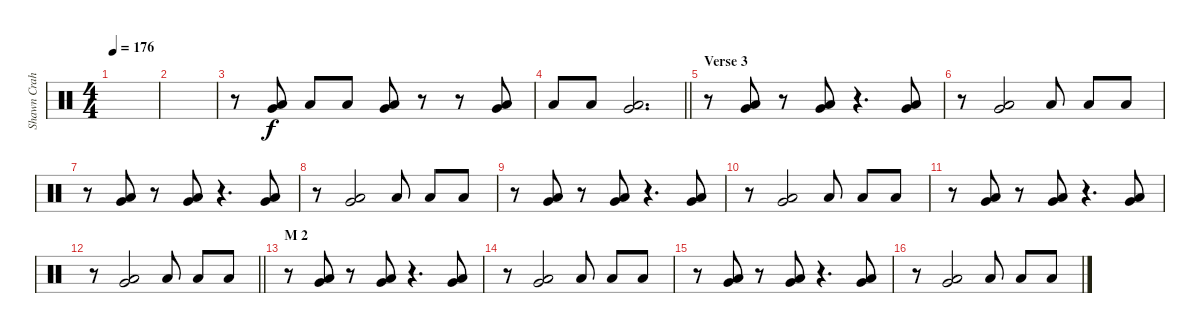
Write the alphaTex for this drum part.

\track ("Shawn Crahan" "Shawn Crah") {instrument percussion}
\staff {score}
\articulation defaults
\ts (4 4)
\tempo 176
\clef neutral
\ks c
|
|
r.8 ("Very Low Tom (hit)" "Low Floor Tom (hit)").8 "Low Floor Tom (hit)".8 "Low Floor Tom (hit)".8 ("Very Low Tom (hit)" "Low Floor Tom (hit)").8 r.8 r.8 ("Very Low Tom (hit)" "Low Floor Tom (hit)").8 |
\barLineRight lightlight "Low Floor Tom (hit)".8 "Low Floor Tom (hit)".8
("Very Low Tom (hit)" "Low Floor Tom (hit)").2{d} |
\section ("" "Verse 3")
r.8 ("Very Low Tom (hit)" "Low Floor Tom (hit)").8 r.8 ("Very Low Tom (hit)" "Low Floor Tom (hit)").8 r.4{d} ("Very Low Tom (hit)" "Low Floor Tom (hit)").8 |
r.8 ("Very Low Tom (hit)" "Low Floor Tom (hit)").2 "Low Floor Tom (hit)".8 "Low Floor Tom (hit)".8 "Low Floor Tom (hit)".8 |
r.8 ("Very Low Tom (hit)" "Low Floor Tom (hit)").8 r.8 ("Very Low Tom (hit)" "Low Floor Tom (hit)").8 r.4{d} ("Very Low Tom (hit)" "Low Floor Tom (hit)").8 |
r.8 ("Very Low Tom (hit)" "Low Floor Tom (hit)").2 "Low Floor Tom (hit)".8 "Low Floor Tom (hit)".8 "Low Floor Tom (hit)".8 |
r.8 ("Very Low Tom (hit)" "Low Floor Tom (hit)").8 r.8 ("Very Low Tom (hit)" "Low Floor Tom (hit)").8 r.4{d} ("Very Low Tom (hit)" "Low Floor Tom (hit)").8 |
r.8 ("Very Low Tom (hit)" "Low Floor Tom (hit)").2 "Low Floor Tom (hit)".8 "Low Floor Tom (hit)".8 "Low Floor Tom (hit)".8 |
r.8 ("Very Low Tom (hit)" "Low Floor Tom (hit)").8 r.8 ("Very Low Tom (hit)" "Low Floor Tom (hit)").8 r.4{d} ("Very Low Tom (hit)" "Low Floor Tom (hit)").8 |
\barLineRight lightlight
r.8 ("Very Low Tom (hit)" "Low Floor Tom (hit)").2 "Low Floor Tom (hit)".8 "Low Floor Tom (hit)".8 "Low Floor Tom (hit)".8 |
\section ("" "M 2")
r.8 ("Very Low Tom (hit)" "Low Floor Tom (hit)").8 r.8 ("Very Low Tom (hit)" "Low Floor Tom (hit)").8 r.4{d} ("Very Low Tom (hit)" "Low Floor Tom (hit)").8 |
r.8 ("Very Low Tom (hit)" "Low Floor Tom (hit)").2 "Low Floor Tom (hit)".8 "Low Floor Tom (hit)".8 "Low Floor Tom (hit)".8 |
r.8 ("Very Low Tom (hit)" "Low Floor Tom (hit)").8 r.8 ("Very Low Tom (hit)" "Low Floor Tom (hit)").8 r.4{d} ("Very Low Tom (hit)" "Low Floor Tom (hit)").8 |
r.8 ("Very Low Tom (hit)" "Low Floor Tom (hit)").2 "Low Floor Tom (hit)".8 "Low Floor Tom (hit)".8 "Low Floor Tom (hit)".8
